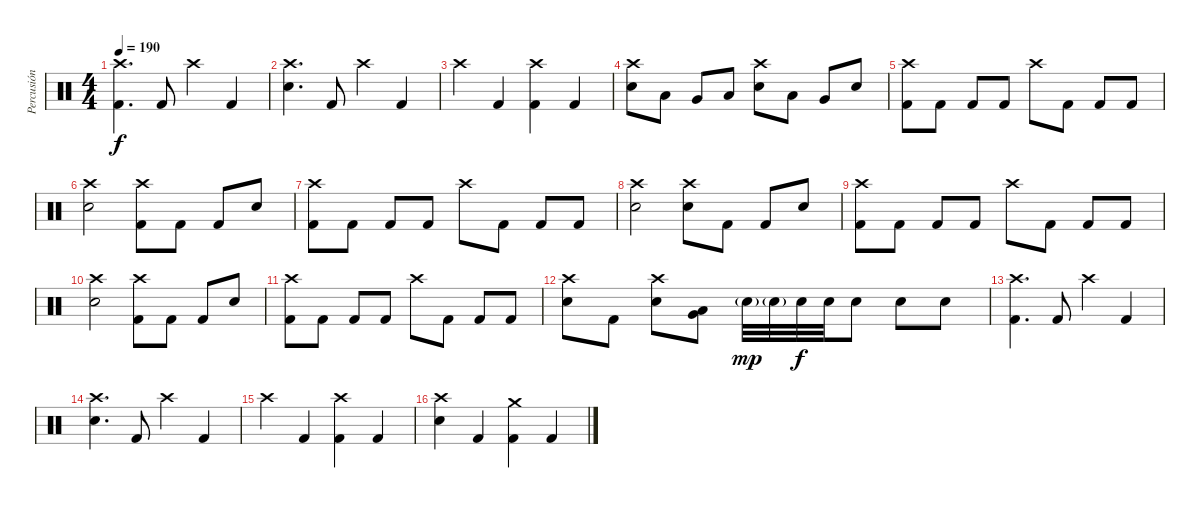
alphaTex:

\track ("Percusión" "Percusión") {instrument percussion}
\staff {score}
\articulation defaults
\ts (4 4)
\tempo 190
\clef neutral
\ks c
("Crash high (hit)" "Kick (hit) 2").4{d dy f} "Kick (hit) 2".8 "Crash high (hit)".4 "Kick (hit) 2".4 |
("Crash high (hit)" "Electric Snare (hit)").4{d} "Kick (hit) 2".8 "Crash high (hit)".4 "Kick (hit) 2".4 |
"Crash high (hit)".4 "Kick (hit) 2".4 ("Crash high (hit)" "Kick (hit) 2").4 "Kick (hit) 2".4 |
("Crash high (hit)" "Electric Snare (hit)").8 "Low Tom (hit)".8 "Very Low Tom (hit)".8 "Low Floor Tom (hit)".8 ("Crash high (hit)" "Electric Snare (hit)").8 "Low Tom (hit)".8 "Very Low Tom (hit)".8 "Electric Snare (hit)".8 |
("Crash high (hit)" "Kick (hit) 2").8 "Kick (hit) 2".8 "Kick (hit) 2".8 "Kick (hit) 2".8 "Crash high (hit)".8 "Kick (hit) 2".8 "Kick (hit) 2".8 "Kick (hit) 2".8 |
("Crash high (hit)" "Electric Snare (hit)").2 ("Crash high (hit)" "Kick (hit) 2").8 "Kick (hit) 2".8 "Kick (hit) 2".8 "Electric Snare (hit)".8 |
("Crash high (hit)" "Kick (hit) 2").8 "Kick (hit) 2".8 "Kick (hit) 2".8 "Kick (hit) 2".8 "Crash high (hit)".8 "Kick (hit) 2".8 "Kick (hit) 2".8 "Kick (hit) 2".8 |
("Crash high (hit)" "Electric Snare (hit)").2 ("Crash high (hit)" "Electric Snare (hit)").8 "Kick (hit) 2".8 "Kick (hit) 2".8 "Electric Snare (hit)".8 |
("Crash high (hit)" "Kick (hit) 2").8 "Kick (hit) 2".8 "Kick (hit) 2".8 "Kick (hit) 2".8 "Crash high (hit)".8 "Kick (hit) 2".8 "Kick (hit) 2".8 "Kick (hit) 2".8 |
("Crash high (hit)" "Electric Snare (hit)").2 ("Crash high (hit)" "Kick (hit) 2").8 "Kick (hit) 2".8 "Kick (hit) 2".8 "Electric Snare (hit)".8 |
("Crash high (hit)" "Kick (hit) 2").8 "Kick (hit) 2".8 "Kick (hit) 2".8 "Kick (hit) 2".8 "Crash high (hit)".8 "Kick (hit) 2".8 "Kick (hit) 2".8 "Kick (hit) 2".8 |
("Crash high (hit)" "Electric Snare (hit)").8 "Kick (hit) 2".8 ("Crash high (hit)" "Electric Snare (hit)").8 ("Low Floor Tom (hit)" "Very Low Tom (hit)").8 "Electric Snare (hit)"{g}.32{dy mp} "Electric Snare (hit)"{g}.32 "Electric Snare (hit)".32{dy f} "Electric Snare (hit)".32 "Electric Snare (hit)".8 "Electric Snare (hit)".8 "Electric Snare (hit)".8 |
("Crash high (hit)" "Kick (hit) 2").4{d} "Kick (hit) 2".8 "Crash high (hit)".4 "Kick (hit) 2".4 |
("Crash high (hit)" "Electric Snare (hit)").4{d} "Kick (hit) 2".8 "Crash high (hit)".4 "Kick (hit) 2".4 |
"Crash high (hit)".4 "Kick (hit) 2".4 ("Crash high (hit)" "Kick (hit) 2").4 "Kick (hit) 2".4 |
("Crash high (hit)" "Electric Snare (hit)").4 "Kick (hit) 2".4 ("Crash medium (hit)" "Kick (hit) 2").4 "Kick (hit) 2".4
